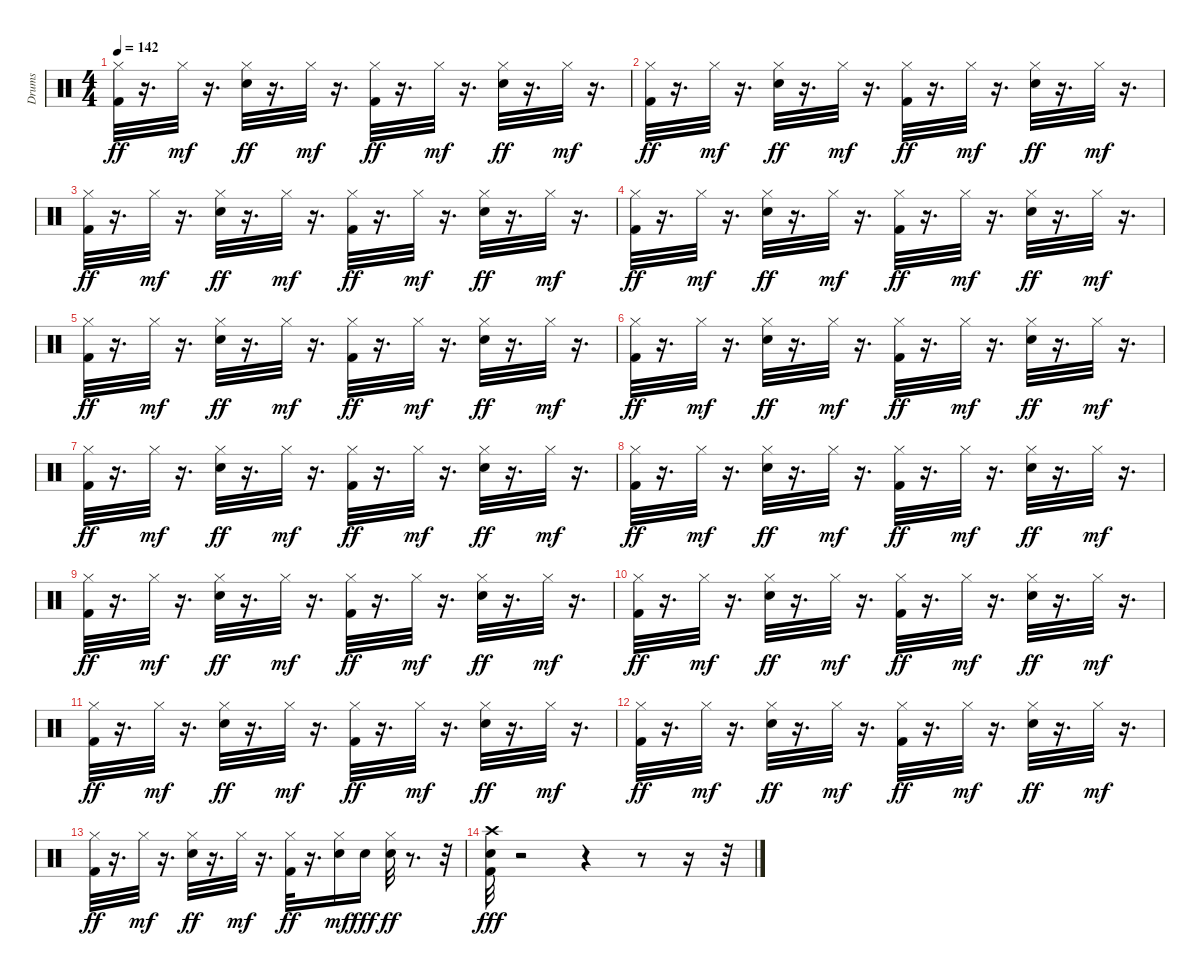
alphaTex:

\track ("Drums" "Drums") {instrument percussion}
\staff {score}
\articulation defaults
\ts (4 4)
\tempo 142
\clef neutral
\ks c
("Kick (hit) 2" "Hi-Hat (closed)").32{dy ff} r.16{d} "Hi-Hat (closed)".32{dy mf} r.16{d} ("Snare (hit) 2" "Hi-Hat (closed)").32{dy ff} r.16{d} "Hi-Hat (closed)".32{dy mf} r.16{d} ("Kick (hit) 2" "Hi-Hat (closed)").32{dy ff} r.16{d} "Hi-Hat (closed)".32{dy mf} r.16{d} ("Snare (hit) 2" "Hi-Hat (closed)").32{dy ff} r.16{d} "Hi-Hat (closed)".32{dy mf} r.16{d} |
("Kick (hit) 2" "Hi-Hat (closed)").32{dy ff} r.16{d} "Hi-Hat (closed)".32{dy mf} r.16{d} ("Snare (hit) 2" "Hi-Hat (closed)").32{dy ff} r.16{d} "Hi-Hat (closed)".32{dy mf} r.16{d} ("Kick (hit) 2" "Hi-Hat (closed)").32{dy ff} r.16{d} "Hi-Hat (closed)".32{dy mf} r.16{d} ("Snare (hit) 2" "Hi-Hat (closed)").32{dy ff} r.16{d} "Hi-Hat (closed)".32{dy mf} r.16{d} |
("Kick (hit) 2" "Hi-Hat (closed)").32{dy ff} r.16{d} "Hi-Hat (closed)".32{dy mf} r.16{d} ("Snare (hit) 2" "Hi-Hat (closed)").32{dy ff} r.16{d} "Hi-Hat (closed)".32{dy mf} r.16{d} ("Kick (hit) 2" "Hi-Hat (closed)").32{dy ff} r.16{d} "Hi-Hat (closed)".32{dy mf} r.16{d} ("Snare (hit) 2" "Hi-Hat (closed)").32{dy ff} r.16{d} "Hi-Hat (closed)".32{dy mf} r.16{d} |
("Kick (hit) 2" "Hi-Hat (closed)").32{dy ff} r.16{d} "Hi-Hat (closed)".32{dy mf} r.16{d} ("Snare (hit) 2" "Hi-Hat (closed)").32{dy ff} r.16{d} "Hi-Hat (closed)".32{dy mf} r.16{d} ("Kick (hit) 2" "Hi-Hat (closed)").32{dy ff} r.16{d} "Hi-Hat (closed)".32{dy mf} r.16{d} ("Snare (hit) 2" "Hi-Hat (closed)").32{dy ff} r.16{d} "Hi-Hat (closed)".32{dy mf} r.16{d} |
("Kick (hit) 2" "Hi-Hat (closed)").32{dy ff} r.16{d} "Hi-Hat (closed)".32{dy mf} r.16{d} ("Snare (hit) 2" "Hi-Hat (closed)").32{dy ff} r.16{d} "Hi-Hat (closed)".32{dy mf} r.16{d} ("Kick (hit) 2" "Hi-Hat (closed)").32{dy ff} r.16{d} "Hi-Hat (closed)".32{dy mf} r.16{d} ("Snare (hit) 2" "Hi-Hat (closed)").32{dy ff} r.16{d} "Hi-Hat (closed)".32{dy mf} r.16{d} |
("Kick (hit) 2" "Hi-Hat (closed)").32{dy ff} r.16{d} "Hi-Hat (closed)".32{dy mf} r.16{d} ("Snare (hit) 2" "Hi-Hat (closed)").32{dy ff} r.16{d} "Hi-Hat (closed)".32{dy mf} r.16{d} ("Kick (hit) 2" "Hi-Hat (closed)").32{dy ff} r.16{d} "Hi-Hat (closed)".32{dy mf} r.16{d} ("Snare (hit) 2" "Hi-Hat (closed)").32{dy ff} r.16{d} "Hi-Hat (closed)".32{dy mf} r.16{d} |
("Kick (hit) 2" "Hi-Hat (closed)").32{dy ff} r.16{d} "Hi-Hat (closed)".32{dy mf} r.16{d} ("Snare (hit) 2" "Hi-Hat (closed)").32{dy ff} r.16{d} "Hi-Hat (closed)".32{dy mf} r.16{d} ("Kick (hit) 2" "Hi-Hat (closed)").32{dy ff} r.16{d} "Hi-Hat (closed)".32{dy mf} r.16{d} ("Snare (hit) 2" "Hi-Hat (closed)").32{dy ff} r.16{d} "Hi-Hat (closed)".32{dy mf} r.16{d} |
("Kick (hit) 2" "Hi-Hat (closed)").32{dy ff} r.16{d} "Hi-Hat (closed)".32{dy mf} r.16{d} ("Snare (hit) 2" "Hi-Hat (closed)").32{dy ff} r.16{d} "Hi-Hat (closed)".32{dy mf} r.16{d} ("Kick (hit) 2" "Hi-Hat (closed)").32{dy ff} r.16{d} "Hi-Hat (closed)".32{dy mf} r.16{d} ("Snare (hit) 2" "Hi-Hat (closed)").32{dy ff} r.16{d} "Hi-Hat (closed)".32{dy mf} r.16{d} |
("Kick (hit) 2" "Hi-Hat (closed)").32{dy ff} r.16{d} "Hi-Hat (closed)".32{dy mf} r.16{d} ("Snare (hit) 2" "Hi-Hat (closed)").32{dy ff} r.16{d} "Hi-Hat (closed)".32{dy mf} r.16{d} ("Kick (hit) 2" "Hi-Hat (closed)").32{dy ff} r.16{d} "Hi-Hat (closed)".32{dy mf} r.16{d} ("Snare (hit) 2" "Hi-Hat (closed)").32{dy ff} r.16{d} "Hi-Hat (closed)".32{dy mf} r.16{d} |
("Kick (hit) 2" "Hi-Hat (closed)").32{dy ff volume 12} r.16{d} "Hi-Hat (closed)".32{dy mf} r.16{d} ("Snare (hit) 2" "Hi-Hat (closed)").32{dy ff volume 12} r.16{d} "Hi-Hat (closed)".32{dy mf} r.16{d} ("Kick (hit) 2" "Hi-Hat (closed)").32{dy ff volume 12} r.16{d} "Hi-Hat (closed)".32{dy mf} r.16{d} ("Snare (hit) 2" "Hi-Hat (closed)").32{dy ff volume 12} r.16{d} "Hi-Hat (closed)".32{dy mf volume 12} r.16{d} |
("Kick (hit) 2" "Hi-Hat (closed)").32{dy ff} r.16{d} "Hi-Hat (closed)".32{dy mf volume 11} r.16{d} ("Snare (hit) 2" "Hi-Hat (closed)").32{dy ff} r.16{d} "Hi-Hat (closed)".32{dy mf volume 11} r.16{d} ("Kick (hit) 2" "Hi-Hat (closed)").32{dy ff volume 11} r.16{d} "Hi-Hat (closed)".32{dy mf} r.16{d} ("Snare (hit) 2" "Hi-Hat (closed)").32{dy ff volume 11} r.16{d} "Hi-Hat (closed)".32{dy mf} r.16{d} |
("Kick (hit) 2" "Hi-Hat (closed)").32{dy ff volume 11} r.16{d} "Hi-Hat (closed)".32{dy mf volume 11} r.16{d} ("Snare (hit) 2" "Hi-Hat (closed)").32{dy ff} r.16{d} "Hi-Hat (closed)".32{dy mf volume 11} r.16{d} ("Kick (hit) 2" "Hi-Hat (closed)").32{dy ff} r.16{d} "Hi-Hat (closed)".32{dy mf volume 10} r.16{d} ("Snare (hit) 2" "Hi-Hat (closed)").32{dy ff volume 10} r.16{d} "Hi-Hat (closed)".32{dy mf} r.16{d} |
("Kick (hit) 2" "Hi-Hat (closed)").32{dy ff volume 10} r.16{d} "Hi-Hat (closed)".32{dy mf} r.16{d} ("Snare (hit) 2" "Hi-Hat (closed)").32{dy ff volume 10} r.16{d} "Hi-Hat (closed)".32{dy mf volume 10} r.16{d} ("Kick (hit) 2" "Hi-Hat (closed)").32{dy ff} r.16{d} ("Snare (hit) 2" "Hi-Hat (closed)").16{dy mf volume 10} "Snare (hit) 2".16{dy fff} ("Snare (hit) 2" "Hi-Hat (closed)").32{dy ff} r.8{d} r.32 |
("Kick (hit) 2" "Snare (hit) 2" "Crash high (hit)").32{dy fff volume 12} r.2 r.4 r.8 r.16 r.32
